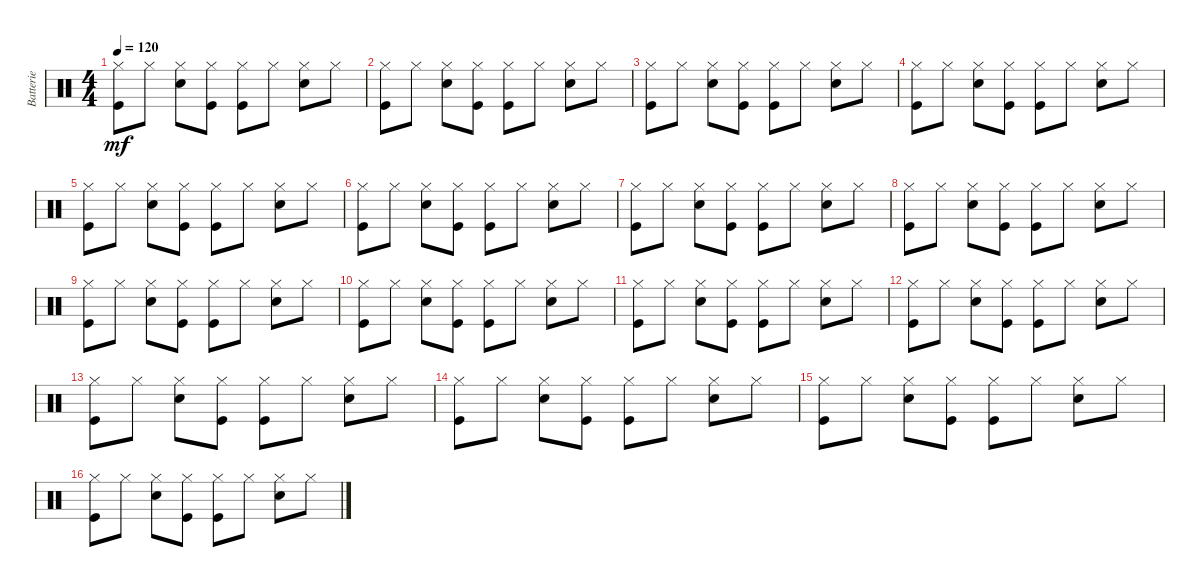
\track ("Batterie" "Batterie") {instrument percussion}
\staff {score}
\articulation defaults
\ts (4 4)
\tempo 120
\clef neutral
\ks c
("Hi-Hat (closed)" "Kick (hit)").8{dy mf} "Hi-Hat (closed)".8 ("Hi-Hat (closed)" "Snare (hit) 2").8 ("Hi-Hat (closed)" "Kick (hit)").8 ("Hi-Hat (closed)" "Kick (hit)").8 "Hi-Hat (closed)".8 ("Hi-Hat (closed)" "Snare (hit) 2").8 "Hi-Hat (closed)".8 |
("Hi-Hat (closed)" "Kick (hit)").8 "Hi-Hat (closed)".8 ("Hi-Hat (closed)" "Snare (hit) 2").8 ("Hi-Hat (closed)" "Kick (hit)").8 ("Hi-Hat (closed)" "Kick (hit)").8 "Hi-Hat (closed)".8 ("Hi-Hat (closed)" "Snare (hit) 2").8 "Hi-Hat (closed)".8 |
("Hi-Hat (closed)" "Kick (hit)").8 "Hi-Hat (closed)".8 ("Hi-Hat (closed)" "Snare (hit) 2").8 ("Hi-Hat (closed)" "Kick (hit)").8 ("Hi-Hat (closed)" "Kick (hit)").8 "Hi-Hat (closed)".8 ("Hi-Hat (closed)" "Snare (hit) 2").8 "Hi-Hat (closed)".8 |
("Hi-Hat (closed)" "Kick (hit)").8 "Hi-Hat (closed)".8 ("Hi-Hat (closed)" "Snare (hit) 2").8 ("Hi-Hat (closed)" "Kick (hit)").8 ("Hi-Hat (closed)" "Kick (hit)").8 "Hi-Hat (closed)".8 ("Hi-Hat (closed)" "Snare (hit) 2").8 "Hi-Hat (closed)".8 |
("Hi-Hat (closed)" "Kick (hit)").8 "Hi-Hat (closed)".8 ("Hi-Hat (closed)" "Snare (hit) 2").8 ("Hi-Hat (closed)" "Kick (hit)").8 ("Hi-Hat (closed)" "Kick (hit)").8 "Hi-Hat (closed)".8 ("Hi-Hat (closed)" "Snare (hit) 2").8 "Hi-Hat (closed)".8 |
("Hi-Hat (closed)" "Kick (hit)").8 "Hi-Hat (closed)".8 ("Hi-Hat (closed)" "Snare (hit) 2").8 ("Hi-Hat (closed)" "Kick (hit)").8 ("Hi-Hat (closed)" "Kick (hit)").8 "Hi-Hat (closed)".8 ("Hi-Hat (closed)" "Snare (hit) 2").8 "Hi-Hat (closed)".8 |
("Hi-Hat (closed)" "Kick (hit)").8 "Hi-Hat (closed)".8 ("Hi-Hat (closed)" "Snare (hit) 2").8 ("Hi-Hat (closed)" "Kick (hit)").8 ("Hi-Hat (closed)" "Kick (hit)").8 "Hi-Hat (closed)".8 ("Hi-Hat (closed)" "Snare (hit) 2").8 "Hi-Hat (closed)".8 |
("Hi-Hat (closed)" "Kick (hit)").8 "Hi-Hat (closed)".8 ("Hi-Hat (closed)" "Snare (hit) 2").8 ("Hi-Hat (closed)" "Kick (hit)").8 ("Hi-Hat (closed)" "Kick (hit)").8 "Hi-Hat (closed)".8 ("Hi-Hat (closed)" "Snare (hit) 2").8 "Hi-Hat (closed)".8 |
("Hi-Hat (closed)" "Kick (hit)").8 "Hi-Hat (closed)".8 ("Hi-Hat (closed)" "Snare (hit) 2").8 ("Hi-Hat (closed)" "Kick (hit)").8 ("Hi-Hat (closed)" "Kick (hit)").8 "Hi-Hat (closed)".8 ("Hi-Hat (closed)" "Snare (hit) 2").8 "Hi-Hat (closed)".8 |
("Hi-Hat (closed)" "Kick (hit)").8 "Hi-Hat (closed)".8 ("Hi-Hat (closed)" "Snare (hit) 2").8 ("Hi-Hat (closed)" "Kick (hit)").8 ("Hi-Hat (closed)" "Kick (hit)").8 "Hi-Hat (closed)".8 ("Hi-Hat (closed)" "Snare (hit) 2").8 "Hi-Hat (closed)".8 |
("Hi-Hat (closed)" "Kick (hit)").8 "Hi-Hat (closed)".8 ("Hi-Hat (closed)" "Snare (hit) 2").8 ("Hi-Hat (closed)" "Kick (hit)").8 ("Hi-Hat (closed)" "Kick (hit)").8 "Hi-Hat (closed)".8 ("Hi-Hat (closed)" "Snare (hit) 2").8 "Hi-Hat (closed)".8 |
("Hi-Hat (closed)" "Kick (hit)").8 "Hi-Hat (closed)".8 ("Hi-Hat (closed)" "Snare (hit) 2").8 ("Hi-Hat (closed)" "Kick (hit)").8 ("Hi-Hat (closed)" "Kick (hit)").8 "Hi-Hat (closed)".8 ("Hi-Hat (closed)" "Snare (hit) 2").8 "Hi-Hat (closed)".8 |
("Hi-Hat (closed)" "Kick (hit)").8 "Hi-Hat (closed)".8 ("Hi-Hat (closed)" "Snare (hit) 2").8 ("Hi-Hat (closed)" "Kick (hit)").8 ("Hi-Hat (closed)" "Kick (hit)").8 "Hi-Hat (closed)".8 ("Hi-Hat (closed)" "Snare (hit) 2").8 "Hi-Hat (closed)".8 |
("Hi-Hat (closed)" "Kick (hit)").8 "Hi-Hat (closed)".8 ("Hi-Hat (closed)" "Snare (hit) 2").8 ("Hi-Hat (closed)" "Kick (hit)").8 ("Hi-Hat (closed)" "Kick (hit)").8 "Hi-Hat (closed)".8 ("Hi-Hat (closed)" "Snare (hit) 2").8 "Hi-Hat (closed)".8 |
("Hi-Hat (closed)" "Kick (hit)").8 "Hi-Hat (closed)".8 ("Hi-Hat (closed)" "Snare (hit) 2").8 ("Hi-Hat (closed)" "Kick (hit)").8 ("Hi-Hat (closed)" "Kick (hit)").8 "Hi-Hat (closed)".8 ("Hi-Hat (closed)" "Snare (hit) 2").8 "Hi-Hat (closed)".8 |
("Hi-Hat (closed)" "Kick (hit)").8 "Hi-Hat (closed)".8 ("Hi-Hat (closed)" "Snare (hit) 2").8 ("Hi-Hat (closed)" "Kick (hit)").8 ("Hi-Hat (closed)" "Kick (hit)").8 "Hi-Hat (closed)".8 ("Hi-Hat (closed)" "Snare (hit) 2").8 "Hi-Hat (closed)".8
